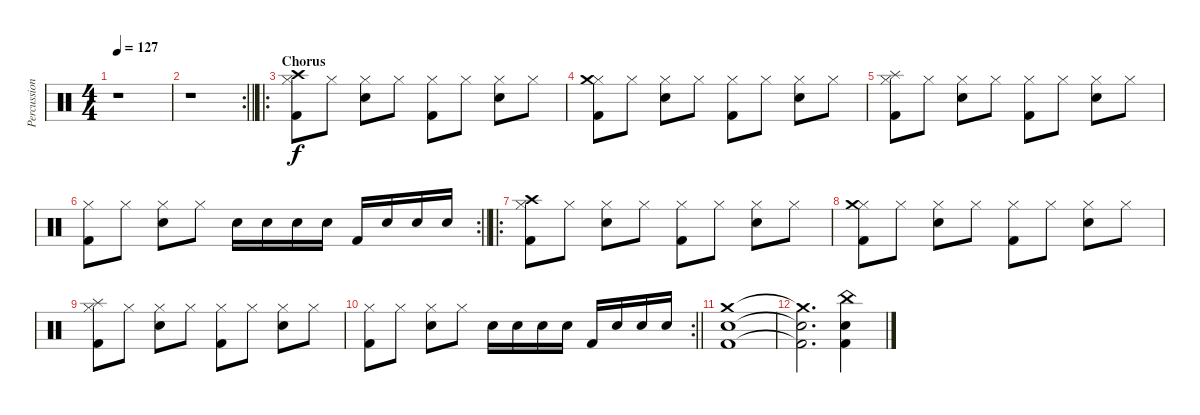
\track ("Percussions" "Percussion") {instrument percussion}
\staff {score}
\articulation defaults
\ts (4 4)
\tempo 127
\clef neutral
\ks c
r.1{dy f} |
\rc 2
\barLineRight lightlight
r.1 |
\ro
\section ("" "Chorus")
("Hi-Hat (closed)" "Crash high (hit)" "Kick (hit) 2").8 "Hi-Hat (closed)".8 ("Hi-Hat (closed)" "Electric Snare (hit)").8 "Hi-Hat (closed)".8 ("Hi-Hat (closed)" "Kick (hit) 2").8 "Hi-Hat (closed)".8 ("Hi-Hat (closed)" "Electric Snare (hit)").8 "Hi-Hat (closed)".8 |
("Hi-Hat (closed)" "Crash medium (hit)" "Kick (hit) 2").8 "Hi-Hat (closed)".8 ("Hi-Hat (closed)" "Electric Snare (hit)").8 "Hi-Hat (closed)".8 ("Hi-Hat (closed)" "Kick (hit) 2").8 "Hi-Hat (closed)".8 ("Hi-Hat (closed)" "Electric Snare (hit)").8 "Hi-Hat (closed)".8 |
("Hi-Hat (closed)" "Splash (hit)" "Kick (hit) 2").8 "Hi-Hat (closed)".8 ("Hi-Hat (closed)" "Electric Snare (hit)").8 "Hi-Hat (closed)".8 ("Hi-Hat (closed)" "Kick (hit) 2").8 "Hi-Hat (closed)".8 ("Hi-Hat (closed)" "Electric Snare (hit)").8 "Hi-Hat (closed)".8 |
\rc 2
\barLineRight lightlight
("Hi-Hat (closed)" "Kick (hit) 2").8 "Hi-Hat (closed)".8 ("Hi-Hat (closed)" "Electric Snare (hit)").8 "Hi-Hat (closed)".8 "Electric Snare (hit)".16 "Electric Snare (hit)".16 "Electric Snare (hit)".16 "Electric Snare (hit)".16 "Kick (hit) 2".16 "Electric Snare (hit)".16 "Electric Snare (hit)".16 "Electric Snare (hit)".16 |
\ro
("Hi-Hat (closed)" "Crash high (hit)" "Kick (hit) 2").8 "Hi-Hat (closed)".8 ("Hi-Hat (closed)" "Electric Snare (hit)").8 "Hi-Hat (closed)".8 ("Hi-Hat (closed)" "Kick (hit) 2").8 "Hi-Hat (closed)".8 ("Hi-Hat (closed)" "Electric Snare (hit)").8 "Hi-Hat (closed)".8 |
("Hi-Hat (closed)" "Crash medium (hit)" "Kick (hit) 2").8 "Hi-Hat (closed)".8 ("Hi-Hat (closed)" "Electric Snare (hit)").8 "Hi-Hat (closed)".8 ("Hi-Hat (closed)" "Kick (hit) 2").8 "Hi-Hat (closed)".8 ("Hi-Hat (closed)" "Electric Snare (hit)").8 "Hi-Hat (closed)".8 |
("Hi-Hat (closed)" "Splash (hit)" "Kick (hit) 2").8 "Hi-Hat (closed)".8 ("Hi-Hat (closed)" "Electric Snare (hit)").8 "Hi-Hat (closed)".8 ("Hi-Hat (closed)" "Kick (hit) 2").8 "Hi-Hat (closed)".8 ("Hi-Hat (closed)" "Electric Snare (hit)").8 "Hi-Hat (closed)".8 |
\rc 2
\barLineRight lightlight
("Hi-Hat (closed)" "Kick (hit) 2").8 "Hi-Hat (closed)".8 ("Hi-Hat (closed)" "Electric Snare (hit)").8 "Hi-Hat (closed)".8 "Electric Snare (hit)".16 "Electric Snare (hit)".16 "Electric Snare (hit)".16 "Electric Snare (hit)".16 "Kick (hit) 2".16 "Electric Snare (hit)".16 "Electric Snare (hit)".16 "Electric Snare (hit)".16 |
("Crash medium (hit)" "Electric Snare (hit)" "Kick (hit) 2").1 |
("Crash medium (hit)"{t} "Electric Snare (hit)"{t} "Kick (hit) 2"{t}).2{d} ("China (hit)" "Electric Snare (hit)" "Kick (hit) 2").4
